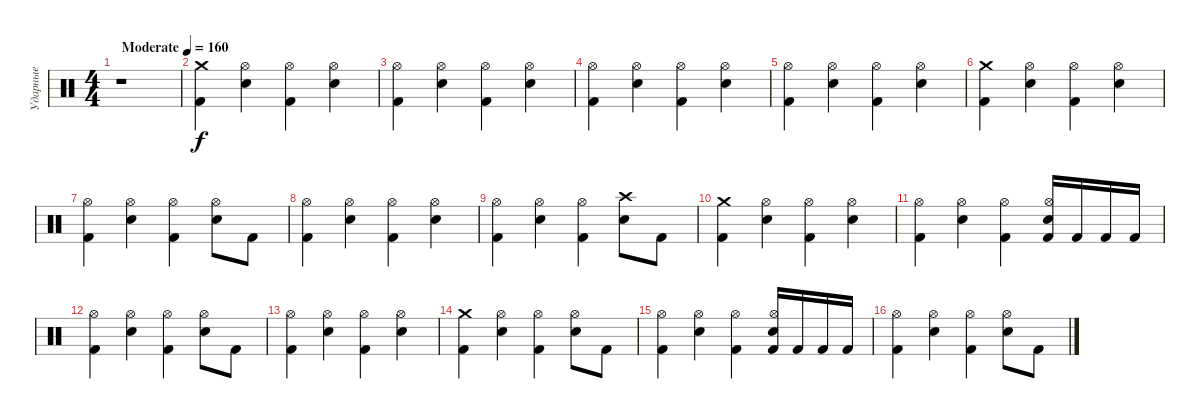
\track ("Ударные" "Ударные") {instrument percussion}
\staff {score}
\articulation defaults
\ts (4 4)
\tempo (160 "Moderate")
\clef neutral
\ks c
r.1{dy f volume 0} |
("Crash medium (hit)" "Kick (hit) 2").4{volume 16} ("Hi-Hat (open)" "Electric Snare (hit)").4 ("Hi-Hat (open)" "Kick (hit) 2").4 ("Hi-Hat (open)" "Electric Snare (hit)").4 |
("Hi-Hat (open)" "Kick (hit) 2").4 ("Hi-Hat (open)" "Electric Snare (hit)").4 ("Hi-Hat (open)" "Kick (hit) 2").4 ("Hi-Hat (open)" "Electric Snare (hit)").4 |
("Hi-Hat (open)" "Kick (hit) 2").4 ("Hi-Hat (open)" "Electric Snare (hit)").4 ("Hi-Hat (open)" "Kick (hit) 2").4 ("Hi-Hat (open)" "Electric Snare (hit)").4 |
("Hi-Hat (open)" "Kick (hit) 2").4 ("Hi-Hat (open)" "Electric Snare (hit)").4 ("Hi-Hat (open)" "Kick (hit) 2").4 ("Hi-Hat (open)" "Electric Snare (hit)").4 |
("Crash medium (hit)" "Kick (hit) 2").4 ("Hi-Hat (open)" "Electric Snare (hit)").4 ("Hi-Hat (open)" "Kick (hit) 2").4 ("Hi-Hat (open)" "Electric Snare (hit)").4 |
("Hi-Hat (open)" "Kick (hit) 2").4 ("Hi-Hat (open)" "Electric Snare (hit)").4 ("Hi-Hat (open)" "Kick (hit) 2").4 ("Hi-Hat (open)" "Electric Snare (hit)").8 "Kick (hit) 2".8 |
("Hi-Hat (open)" "Kick (hit) 2").4 ("Hi-Hat (open)" "Electric Snare (hit)").4 ("Hi-Hat (open)" "Kick (hit) 2").4 ("Hi-Hat (open)" "Electric Snare (hit)").4 |
("Hi-Hat (open)" "Kick (hit) 2").4 ("Hi-Hat (open)" "Electric Snare (hit)").4 ("Hi-Hat (open)" "Kick (hit) 2").4 ("Crash high (hit)" "Electric Snare (hit)").8 "Kick (hit) 2".8 |
("Crash medium (hit)" "Kick (hit) 2").4 ("Hi-Hat (open)" "Electric Snare (hit)").4 ("Hi-Hat (open)" "Kick (hit) 2").4 ("Hi-Hat (open)" "Electric Snare (hit)").4 |
("Hi-Hat (open)" "Kick (hit) 2").4 ("Hi-Hat (open)" "Electric Snare (hit)").4 ("Hi-Hat (open)" "Kick (hit) 2").4 ("Hi-Hat (open)" "Electric Snare (hit)" "Kick (hit) 2").16 "Kick (hit) 2".16 "Kick (hit) 2".16 "Kick (hit) 2".16 |
("Hi-Hat (open)" "Kick (hit) 2").4 ("Hi-Hat (open)" "Electric Snare (hit)").4 ("Hi-Hat (open)" "Kick (hit) 2").4 ("Hi-Hat (open)" "Electric Snare (hit)").8 "Kick (hit) 2".8 |
("Hi-Hat (open)" "Kick (hit) 2").4 ("Hi-Hat (open)" "Electric Snare (hit)").4 ("Hi-Hat (open)" "Kick (hit) 2").4 ("Hi-Hat (open)" "Electric Snare (hit)").4 |
("Crash medium (hit)" "Kick (hit) 2").4 ("Hi-Hat (open)" "Electric Snare (hit)").4 ("Hi-Hat (open)" "Kick (hit) 2").4 ("Hi-Hat (open)" "Electric Snare (hit)").8 "Kick (hit) 2".8 |
("Hi-Hat (open)" "Kick (hit) 2").4 ("Hi-Hat (open)" "Electric Snare (hit)").4 ("Hi-Hat (open)" "Kick (hit) 2").4 ("Hi-Hat (open)" "Electric Snare (hit)" "Kick (hit) 2").16 "Kick (hit) 2".16 "Kick (hit) 2".16 "Kick (hit) 2".16 |
("Hi-Hat (open)" "Kick (hit) 2").4 ("Hi-Hat (open)" "Electric Snare (hit)").4 ("Hi-Hat (open)" "Kick (hit) 2").4 ("Hi-Hat (open)" "Electric Snare (hit)").8 "Kick (hit) 2".8
